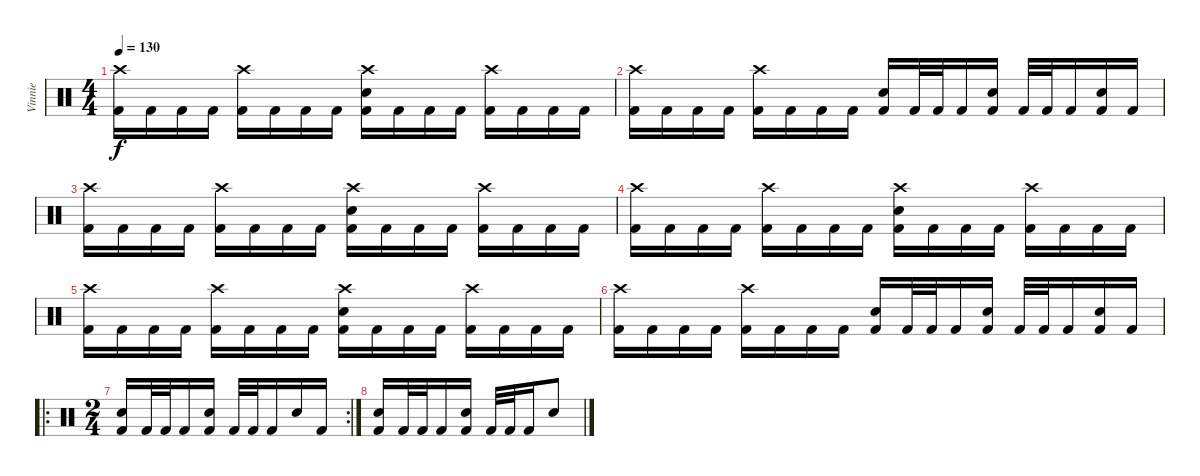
\track ("Vinnie" "Vinnie") {instrument percussion}
\staff {score}
\articulation defaults
\ts (4 4)
\tempo 130
\clef neutral
\ks c
("Crash high (hit)" "Kick (hit) 2").16{dy f} "Kick (hit) 2".16 "Kick (hit) 2".16 "Kick (hit) 2".16 ("Crash high (hit)" "Kick (hit) 2").16 "Kick (hit) 2".16 "Kick (hit) 2".16 "Kick (hit) 2".16 ("Crash high (hit)" "Snare (hit) 2" "Kick (hit) 2").16 "Kick (hit) 2".16 "Kick (hit) 2".16 "Kick (hit) 2".16 ("Crash high (hit)" "Kick (hit) 2").16 "Kick (hit) 2".16 "Kick (hit) 2".16 "Kick (hit) 2".16 |
("Crash high (hit)" "Kick (hit) 2").16 "Kick (hit) 2".16 "Kick (hit) 2".16 "Kick (hit) 2".16 ("Crash high (hit)" "Kick (hit) 2").16 "Kick (hit) 2".16 "Kick (hit) 2".16 "Kick (hit) 2".16 ("Snare (hit) 2" "Kick (hit) 2").16 "Kick (hit) 2".32 "Kick (hit) 2".32 "Kick (hit) 2".16 ("Snare (hit) 2" "Kick (hit) 2").16 "Kick (hit) 2".32 "Kick (hit) 2".32 "Kick (hit) 2".16 ("Snare (hit) 2" "Kick (hit) 2").16 "Kick (hit) 2".16 |
("Crash high (hit)" "Kick (hit) 2").16 "Kick (hit) 2".16 "Kick (hit) 2".16 "Kick (hit) 2".16 ("Crash high (hit)" "Kick (hit) 2").16 "Kick (hit) 2".16 "Kick (hit) 2".16 "Kick (hit) 2".16 ("Crash high (hit)" "Snare (hit) 2" "Kick (hit) 2").16 "Kick (hit) 2".16 "Kick (hit) 2".16 "Kick (hit) 2".16 ("Crash high (hit)" "Kick (hit) 2").16 "Kick (hit) 2".16 "Kick (hit) 2".16 "Kick (hit) 2".16 |
("Crash high (hit)" "Kick (hit) 2").16 "Kick (hit) 2".16 "Kick (hit) 2".16 "Kick (hit) 2".16 ("Crash high (hit)" "Kick (hit) 2").16 "Kick (hit) 2".16 "Kick (hit) 2".16 "Kick (hit) 2".16 ("Crash high (hit)" "Snare (hit) 2" "Kick (hit) 2").16 "Kick (hit) 2".16 "Kick (hit) 2".16 "Kick (hit) 2".16 ("Crash high (hit)" "Kick (hit) 2").16 "Kick (hit) 2".16 "Kick (hit) 2".16 "Kick (hit) 2".16 |
("Crash high (hit)" "Kick (hit) 2").16 "Kick (hit) 2".16 "Kick (hit) 2".16 "Kick (hit) 2".16 ("Crash high (hit)" "Kick (hit) 2").16 "Kick (hit) 2".16 "Kick (hit) 2".16 "Kick (hit) 2".16 ("Crash high (hit)" "Snare (hit) 2" "Kick (hit) 2").16 "Kick (hit) 2".16 "Kick (hit) 2".16 "Kick (hit) 2".16 ("Crash high (hit)" "Kick (hit) 2").16 "Kick (hit) 2".16 "Kick (hit) 2".16 "Kick (hit) 2".16 |
("Crash high (hit)" "Kick (hit) 2").16 "Kick (hit) 2".16 "Kick (hit) 2".16 "Kick (hit) 2".16 ("Crash high (hit)" "Kick (hit) 2").16 "Kick (hit) 2".16 "Kick (hit) 2".16 "Kick (hit) 2".16 ("Snare (hit) 2" "Kick (hit) 2").16 "Kick (hit) 2".32 "Kick (hit) 2".32 "Kick (hit) 2".16 ("Snare (hit) 2" "Kick (hit) 2").16 "Kick (hit) 2".32 "Kick (hit) 2".32 "Kick (hit) 2".16 ("Snare (hit) 2" "Kick (hit) 2").16 "Kick (hit) 2".16 |
\ro
\rc 2
\ts (2 4)
("Snare (hit) 2" "Kick (hit) 2").16 "Kick (hit) 2".32 "Kick (hit) 2".32 "Kick (hit) 2".16 ("Snare (hit) 2" "Kick (hit) 2").16 "Kick (hit) 2".32 "Kick (hit) 2".32 "Kick (hit) 2".16 "Snare (hit) 2".16 "Kick (hit) 2".16 |
("Snare (hit) 2" "Kick (hit) 2").16 "Kick (hit) 2".32 "Kick (hit) 2".32 "Kick (hit) 2".16 ("Snare (hit) 2" "Kick (hit) 2").16 "Kick (hit) 2".32 "Kick (hit) 2".32 "Kick (hit) 2".16 "Snare (hit) 2".8
